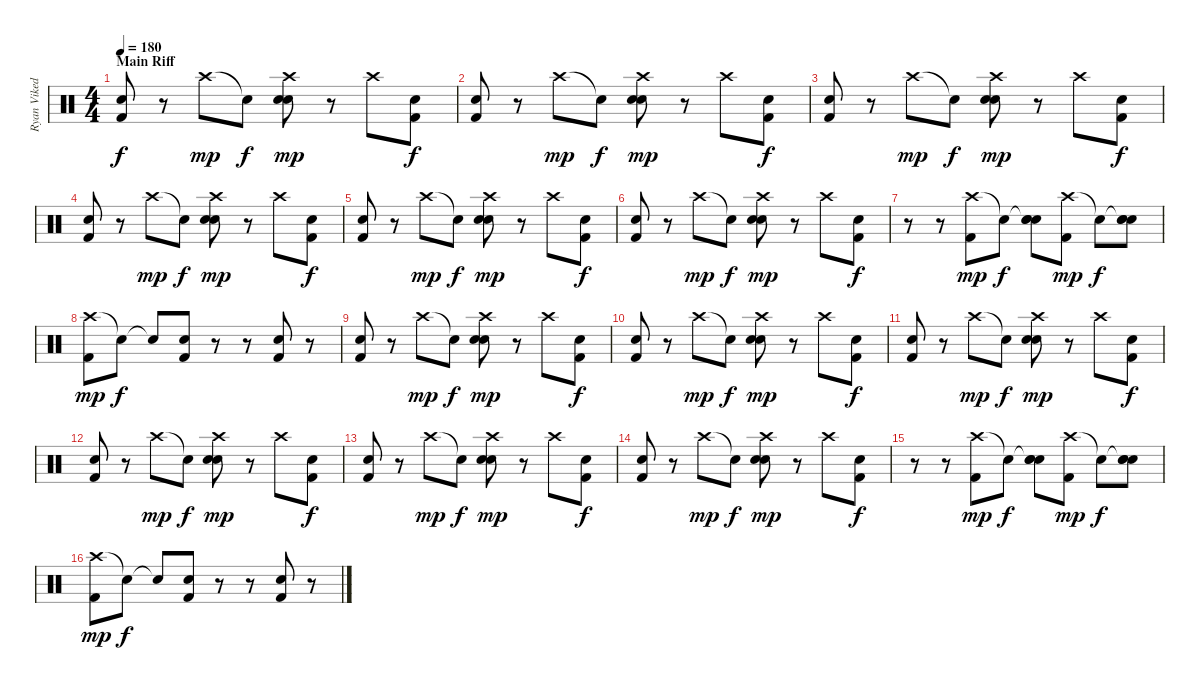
\track ("Ryan Vikedal(drums)" "Ryan Viked") {instrument percussion}
\staff {score}
\articulation defaults
\ts (4 4)
\section ("" "Main Riff")
\tempo 180
\clef neutral
\ks c
("Electric Snare (hit)" "Kick (hit) 2").8{dy f} r.8 "Crash high (hit)".8{dy mp} "Snare (hit)"{t}.8{dy f} ("Crash high (hit)" "Electric Snare (hit)" "Electric Snare (hit)").8{dy mp} r.8 "Crash high (hit)".8 ("Kick (hit) 2" "Electric Snare (hit)").8{dy f} |
("Electric Snare (hit)" "Kick (hit) 2").8 r.8 "Crash high (hit)".8{dy mp} "Snare (hit)"{t}.8{dy f} ("Crash high (hit)" "Electric Snare (hit)" "Electric Snare (hit)").8{dy mp} r.8 "Crash high (hit)".8 ("Kick (hit) 2" "Electric Snare (hit)").8{dy f} |
("Electric Snare (hit)" "Kick (hit) 2").8 r.8 "Crash high (hit)".8{dy mp} "Snare (hit)"{t}.8{dy f} ("Crash high (hit)" "Electric Snare (hit)" "Electric Snare (hit)").8{dy mp} r.8 "Crash high (hit)".8 ("Kick (hit) 2" "Electric Snare (hit)").8{dy f} |
("Electric Snare (hit)" "Kick (hit) 2").8 r.8 "Crash high (hit)".8{dy mp} "Snare (hit)"{t}.8{dy f} ("Crash high (hit)" "Electric Snare (hit)" "Electric Snare (hit)").8{dy mp} r.8 "Crash high (hit)".8 ("Kick (hit) 2" "Electric Snare (hit)").8{dy f} |
("Electric Snare (hit)" "Kick (hit) 2").8 r.8 "Crash high (hit)".8{dy mp} "Snare (hit)"{t}.8{dy f} ("Crash high (hit)" "Electric Snare (hit)" "Electric Snare (hit)").8{dy mp} r.8 "Crash high (hit)".8 ("Kick (hit) 2" "Electric Snare (hit)").8{dy f} |
("Electric Snare (hit)" "Kick (hit) 2").8 r.8 "Crash high (hit)".8{dy mp} "Snare (hit)"{t}.8{dy f} ("Crash high (hit)" "Electric Snare (hit)" "Electric Snare (hit)").8{dy mp} r.8 "Crash high (hit)".8 ("Kick (hit) 2" "Electric Snare (hit)").8{dy f} |
r.8 r.8 ("Crash high (hit)" "Kick (hit) 2").8{dy mp} "Snare (hit)"{t}.8{dy f} ("Snare (hit)"{t} "Electric Snare (hit)" "Electric Snare (hit)").8 ("Crash high (hit)" "Kick (hit) 2").8{dy mp} "Snare (hit)"{t}.8{dy f} ("Snare (hit)"{t} "Electric Snare (hit)" "Electric Snare (hit)").8 |
("Crash high (hit)" "Kick (hit) 2").8{dy mp} "Snare (hit)"{t}.8{dy f} "Snare (hit)"{t}.8 ("Electric Snare (hit)" "Kick (hit) 2").8 r.8 r.8 ("Electric Snare (hit)" "Kick (hit) 2").8 r.8 |
("Electric Snare (hit)" "Kick (hit) 2").8 r.8 "Crash high (hit)".8{dy mp} "Snare (hit)"{t}.8{dy f} ("Crash high (hit)" "Electric Snare (hit)" "Electric Snare (hit)").8{dy mp} r.8 "Crash high (hit)".8 ("Kick (hit) 2" "Electric Snare (hit)").8{dy f} |
("Electric Snare (hit)" "Kick (hit) 2").8 r.8 "Crash high (hit)".8{dy mp} "Snare (hit)"{t}.8{dy f} ("Crash high (hit)" "Electric Snare (hit)" "Electric Snare (hit)").8{dy mp} r.8 "Crash high (hit)".8 ("Kick (hit) 2" "Electric Snare (hit)").8{dy f} |
("Electric Snare (hit)" "Kick (hit) 2").8 r.8 "Crash high (hit)".8{dy mp} "Snare (hit)"{t}.8{dy f} ("Crash high (hit)" "Electric Snare (hit)" "Electric Snare (hit)").8{dy mp} r.8 "Crash high (hit)".8 ("Kick (hit) 2" "Electric Snare (hit)").8{dy f} |
("Electric Snare (hit)" "Kick (hit) 2").8 r.8 "Crash high (hit)".8{dy mp} "Snare (hit)"{t}.8{dy f} ("Crash high (hit)" "Electric Snare (hit)" "Electric Snare (hit)").8{dy mp} r.8 "Crash high (hit)".8 ("Kick (hit) 2" "Electric Snare (hit)").8{dy f} |
("Electric Snare (hit)" "Kick (hit) 2").8 r.8 "Crash high (hit)".8{dy mp} "Snare (hit)"{t}.8{dy f} ("Crash high (hit)" "Electric Snare (hit)" "Electric Snare (hit)").8{dy mp} r.8 "Crash high (hit)".8 ("Kick (hit) 2" "Electric Snare (hit)").8{dy f} |
("Electric Snare (hit)" "Kick (hit) 2").8 r.8 "Crash high (hit)".8{dy mp} "Snare (hit)"{t}.8{dy f} ("Crash high (hit)" "Electric Snare (hit)" "Electric Snare (hit)").8{dy mp} r.8 "Crash high (hit)".8 ("Kick (hit) 2" "Electric Snare (hit)").8{dy f} |
r.8 r.8 ("Crash high (hit)" "Kick (hit) 2").8{dy mp} "Snare (hit)"{t}.8{dy f} ("Snare (hit)"{t} "Electric Snare (hit)" "Electric Snare (hit)").8 ("Crash high (hit)" "Kick (hit) 2").8{dy mp} "Snare (hit)"{t}.8{dy f} ("Snare (hit)"{t} "Electric Snare (hit)" "Electric Snare (hit)").8 |
("Crash high (hit)" "Kick (hit) 2").8{dy mp} "Snare (hit)"{t}.8{dy f} "Snare (hit)"{t}.8 ("Electric Snare (hit)" "Kick (hit) 2").8 r.8 r.8 ("Electric Snare (hit)" "Kick (hit) 2").8 r.8
